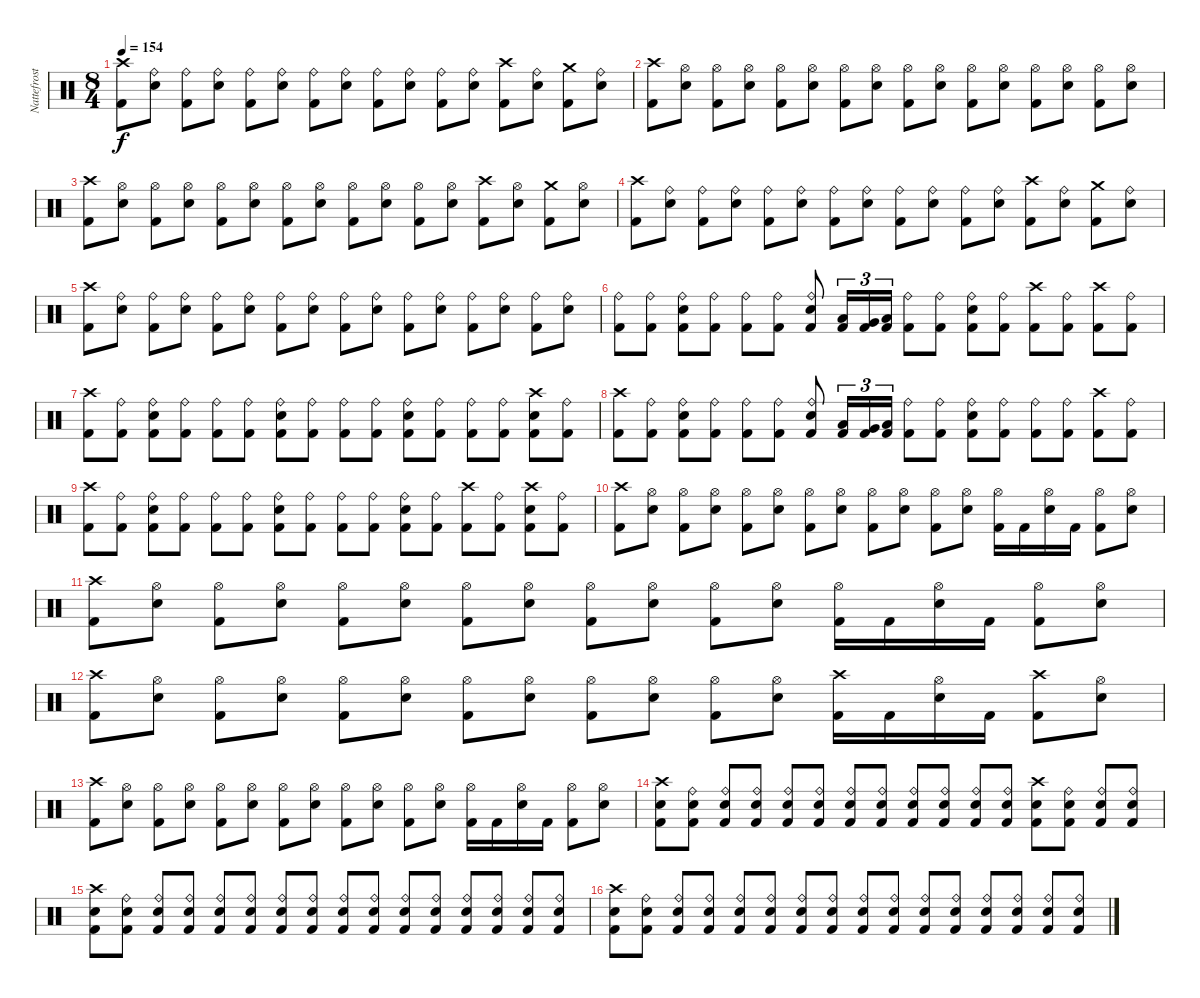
\track ("Nattefrost" "Nattefrost") {instrument percussion}
\staff {score}
\articulation defaults
\ts (8 4)
\tempo 154
\clef neutral
\ks c
("Crash high (hit)" "Kick (hit) 2").8{dy f} ("Ride (bell)" "Snare (hit) 2").8 ("Ride (bell)" "Kick (hit) 2").8 ("Ride (bell)" "Snare (hit) 2").8 ("Ride (bell)" "Kick (hit) 2").8 ("Ride (bell)" "Snare (hit) 2").8 ("Ride (bell)" "Kick (hit) 2").8 ("Ride (bell)" "Snare (hit) 2").8 ("Ride (bell)" "Kick (hit) 2").8 ("Ride (bell)" "Snare (hit) 2").8 ("Ride (bell)" "Kick (hit) 2").8 ("Ride (bell)" "Snare (hit) 2").8 ("Crash high (hit)" "Kick (hit) 2").8 ("Ride (bell)" "Snare (hit) 2").8 ("Crash medium (hit)" "Kick (hit) 2").8 ("Ride (bell)" "Snare (hit) 2").8 |
("Crash high (hit)" "Kick (hit) 2").8 ("Hi-Hat (open)" "Snare (hit) 2").8 ("Hi-Hat (open)" "Kick (hit) 2").8 ("Hi-Hat (open)" "Snare (hit) 2").8 ("Hi-Hat (open)" "Kick (hit) 2").8 ("Hi-Hat (open)" "Snare (hit) 2").8 ("Hi-Hat (open)" "Kick (hit) 2").8 ("Hi-Hat (open)" "Snare (hit) 2").8 ("Hi-Hat (open)" "Kick (hit) 2").8 ("Hi-Hat (open)" "Snare (hit) 2").8 ("Hi-Hat (open)" "Kick (hit) 2").8 ("Hi-Hat (open)" "Snare (hit) 2").8 ("Hi-Hat (open)" "Kick (hit) 2").8 ("Hi-Hat (open)" "Snare (hit) 2").8 ("Hi-Hat (open)" "Kick (hit) 2").8 ("Hi-Hat (open)" "Snare (hit) 2").8 |
("Crash high (hit)" "Kick (hit) 2").8 ("Hi-Hat (open)" "Snare (hit) 2").8 ("Hi-Hat (open)" "Kick (hit) 2").8 ("Hi-Hat (open)" "Snare (hit) 2").8 ("Hi-Hat (open)" "Kick (hit) 2").8 ("Hi-Hat (open)" "Snare (hit) 2").8 ("Hi-Hat (open)" "Kick (hit) 2").8 ("Hi-Hat (open)" "Snare (hit) 2").8 ("Hi-Hat (open)" "Kick (hit) 2").8 ("Hi-Hat (open)" "Snare (hit) 2").8 ("Hi-Hat (open)" "Kick (hit) 2").8 ("Hi-Hat (open)" "Snare (hit) 2").8 ("Crash high (hit)" "Kick (hit) 2").8 ("Hi-Hat (open)" "Snare (hit) 2").8 ("Crash medium (hit)" "Kick (hit) 2").8 ("Hi-Hat (open)" "Snare (hit) 2").8 |
("Crash high (hit)" "Kick (hit) 2").8 ("Ride (bell)" "Snare (hit) 2").8 ("Ride (bell)" "Kick (hit) 2").8 ("Ride (bell)" "Snare (hit) 2").8 ("Ride (bell)" "Kick (hit) 2").8 ("Ride (bell)" "Snare (hit) 2").8 ("Ride (bell)" "Kick (hit) 2").8 ("Ride (bell)" "Snare (hit) 2").8 ("Ride (bell)" "Kick (hit) 2").8 ("Ride (bell)" "Snare (hit) 2").8 ("Ride (bell)" "Kick (hit) 2").8 ("Ride (bell)" "Snare (hit) 2").8 ("Crash high (hit)" "Kick (hit) 2").8 ("Ride (bell)" "Snare (hit) 2").8 ("Crash medium (hit)" "Kick (hit) 2").8 ("Ride (bell)" "Snare (hit) 2").8 |
("Crash high (hit)" "Kick (hit) 2").8 ("Ride (bell)" "Snare (hit) 2").8 ("Ride (bell)" "Kick (hit) 2").8 ("Ride (bell)" "Snare (hit) 2").8 ("Ride (bell)" "Kick (hit) 2").8 ("Ride (bell)" "Snare (hit) 2").8 ("Ride (bell)" "Kick (hit) 2").8 ("Ride (bell)" "Snare (hit) 2").8 ("Ride (bell)" "Kick (hit) 2").8 ("Ride (bell)" "Snare (hit) 2").8 ("Ride (bell)" "Kick (hit) 2").8 ("Ride (bell)" "Snare (hit) 2").8 ("Ride (bell)" "Kick (hit) 2").8 ("Ride (bell)" "Snare (hit) 2").8 ("Ride (bell)" "Kick (hit) 2").8 ("Ride (bell)" "Snare (hit) 2").8 |
("Ride (bell)" "Kick (hit) 2").8 ("Ride (bell)" "Kick (hit) 2").8 ("Ride (bell)" "Snare (hit) 2" "Kick (hit) 2").8 ("Ride (bell)" "Kick (hit) 2").8 ("Ride (bell)" "Kick (hit) 2").8 ("Ride (bell)" "Kick (hit) 2").8 ("Ride (bell)" "Snare (hit) 2" "Kick (hit) 2").8 ("Low Tom (hit)" "Kick (hit) 2").16{tu (3 2)} ("Very Low Tom (hit)" "Kick (hit) 2").16{tu (3 2)} ("Low Floor Tom (hit)" "Kick (hit) 2").16{tu (3 2)} ("Ride (bell)" "Kick (hit) 2").8 ("Ride (bell)" "Kick (hit) 2").8 ("Ride (bell)" "Snare (hit) 2" "Kick (hit) 2").8 ("Ride (bell)" "Kick (hit) 2").8 ("Crash high (hit)" "Kick (hit) 2").8 ("Ride (bell)" "Kick (hit) 2").8 ("Crash high (hit)" "Kick (hit) 2").8 ("Ride (bell)" "Kick (hit) 2").8 |
("Crash high (hit)" "Kick (hit) 2").8 ("Ride (bell)" "Kick (hit) 2").8 ("Ride (bell)" "Snare (hit) 2" "Kick (hit) 2").8 ("Ride (bell)" "Kick (hit) 2").8 ("Ride (bell)" "Kick (hit) 2").8 ("Ride (bell)" "Kick (hit) 2").8 ("Ride (bell)" "Snare (hit) 2" "Kick (hit) 2").8 ("Ride (bell)" "Kick (hit) 2").8 ("Ride (bell)" "Kick (hit) 2").8 ("Ride (bell)" "Kick (hit) 2").8 ("Ride (bell)" "Snare (hit) 2" "Kick (hit) 2").8 ("Ride (bell)" "Kick (hit) 2").8 ("Ride (bell)" "Kick (hit) 2").8 ("Ride (bell)" "Kick (hit) 2").8 ("Crash high (hit)" "Snare (hit) 2" "Kick (hit) 2").8 ("Ride (bell)" "Kick (hit) 2").8 |
("Crash high (hit)" "Kick (hit) 2").8 ("Ride (bell)" "Kick (hit) 2").8 ("Ride (bell)" "Snare (hit) 2" "Kick (hit) 2").8 ("Ride (bell)" "Kick (hit) 2").8 ("Ride (bell)" "Kick (hit) 2").8 ("Ride (bell)" "Kick (hit) 2").8 ("Ride (bell)" "Snare (hit) 2" "Kick (hit) 2").8 ("Low Tom (hit)" "Kick (hit) 2").16{tu (3 2)} ("Very Low Tom (hit)" "Kick (hit) 2").16{tu (3 2)} ("Low Floor Tom (hit)" "Kick (hit) 2").16{tu (3 2)} ("Ride (bell)" "Kick (hit) 2").8 ("Ride (bell)" "Kick (hit) 2").8 ("Ride (bell)" "Snare (hit) 2" "Kick (hit) 2").8 ("Ride (bell)" "Kick (hit) 2").8 ("Ride (bell)" "Kick (hit) 2").8 ("Ride (bell)" "Kick (hit) 2").8 ("Crash high (hit)" "Kick (hit) 2").8 ("Ride (bell)" "Kick (hit) 2").8 |
("Crash high (hit)" "Kick (hit) 2").8 ("Ride (bell)" "Kick (hit) 2").8 ("Ride (bell)" "Snare (hit) 2" "Kick (hit) 2").8 ("Ride (bell)" "Kick (hit) 2").8 ("Ride (bell)" "Kick (hit) 2").8 ("Ride (bell)" "Kick (hit) 2").8 ("Ride (bell)" "Snare (hit) 2" "Kick (hit) 2").8 ("Ride (bell)" "Kick (hit) 2").8 ("Ride (bell)" "Kick (hit) 2").8 ("Ride (bell)" "Kick (hit) 2").8 ("Ride (bell)" "Snare (hit) 2" "Kick (hit) 2").8 ("Ride (bell)" "Kick (hit) 2").8 ("Crash high (hit)" "Kick (hit) 2").8 ("Ride (bell)" "Kick (hit) 2").8 ("Crash high (hit)" "Snare (hit) 2" "Kick (hit) 2").8 ("Ride (bell)" "Kick (hit) 2").8 |
("Crash high (hit)" "Kick (hit) 2").8 ("Hi-Hat (open)" "Snare (hit) 2").8 ("Hi-Hat (open)" "Kick (hit) 2").8 ("Hi-Hat (open)" "Snare (hit) 2").8 ("Hi-Hat (open)" "Kick (hit) 2").8 ("Hi-Hat (open)" "Snare (hit) 2").8 ("Hi-Hat (open)" "Kick (hit) 2").8 ("Hi-Hat (open)" "Snare (hit) 2").8 ("Hi-Hat (open)" "Kick (hit) 2").8 ("Hi-Hat (open)" "Snare (hit) 2").8 ("Hi-Hat (open)" "Kick (hit) 2").8 ("Hi-Hat (open)" "Snare (hit) 2").8 ("Hi-Hat (open)" "Kick (hit) 2").16 "Kick (hit) 2".16 ("Hi-Hat (open)" "Snare (hit) 2").16 "Kick (hit) 2".16 ("Hi-Hat (open)" "Kick (hit) 2").8 ("Hi-Hat (open)" "Snare (hit) 2").8 |
("Crash high (hit)" "Kick (hit) 2").8 ("Hi-Hat (open)" "Snare (hit) 2").8 ("Hi-Hat (open)" "Kick (hit) 2").8 ("Hi-Hat (open)" "Snare (hit) 2").8 ("Hi-Hat (open)" "Kick (hit) 2").8 ("Hi-Hat (open)" "Snare (hit) 2").8 ("Hi-Hat (open)" "Kick (hit) 2").8 ("Hi-Hat (open)" "Snare (hit) 2").8 ("Hi-Hat (open)" "Kick (hit) 2").8 ("Hi-Hat (open)" "Snare (hit) 2").8 ("Hi-Hat (open)" "Kick (hit) 2").8 ("Hi-Hat (open)" "Snare (hit) 2").8 ("Hi-Hat (open)" "Kick (hit) 2").16 "Kick (hit) 2".16 ("Hi-Hat (open)" "Snare (hit) 2").16 "Kick (hit) 2".16 ("Hi-Hat (open)" "Kick (hit) 2").8 ("Hi-Hat (open)" "Snare (hit) 2").8 |
("Crash high (hit)" "Kick (hit) 2").8 ("Hi-Hat (open)" "Snare (hit) 2").8 ("Hi-Hat (open)" "Kick (hit) 2").8 ("Hi-Hat (open)" "Snare (hit) 2").8 ("Hi-Hat (open)" "Kick (hit) 2").8 ("Hi-Hat (open)" "Snare (hit) 2").8 ("Hi-Hat (open)" "Kick (hit) 2").8 ("Hi-Hat (open)" "Snare (hit) 2").8 ("Hi-Hat (open)" "Kick (hit) 2").8 ("Hi-Hat (open)" "Snare (hit) 2").8 ("Hi-Hat (open)" "Kick (hit) 2").8 ("Hi-Hat (open)" "Snare (hit) 2").8 ("Crash high (hit)" "Kick (hit) 2").16 "Kick (hit) 2".16 ("Hi-Hat (open)" "Snare (hit) 2").16 "Kick (hit) 2".16 ("Crash high (hit)" "Kick (hit) 2").8 ("Hi-Hat (open)" "Snare (hit) 2").8 |
("Crash high (hit)" "Kick (hit) 2").8 ("Hi-Hat (open)" "Snare (hit) 2").8 ("Hi-Hat (open)" "Kick (hit) 2").8 ("Hi-Hat (open)" "Snare (hit) 2").8 ("Hi-Hat (open)" "Kick (hit) 2").8 ("Hi-Hat (open)" "Snare (hit) 2").8 ("Hi-Hat (open)" "Kick (hit) 2").8 ("Hi-Hat (open)" "Snare (hit) 2").8 ("Hi-Hat (open)" "Kick (hit) 2").8 ("Hi-Hat (open)" "Snare (hit) 2").8 ("Hi-Hat (open)" "Kick (hit) 2").8 ("Hi-Hat (open)" "Snare (hit) 2").8 ("Hi-Hat (open)" "Kick (hit) 2").16 "Kick (hit) 2".16 ("Hi-Hat (open)" "Snare (hit) 2").16 "Kick (hit) 2".16 ("Hi-Hat (open)" "Kick (hit) 2").8 ("Hi-Hat (open)" "Snare (hit) 2").8 |
("Crash high (hit)" "Snare (hit) 2" "Kick (hit) 2").8 ("Ride (bell)" "Snare (hit) 2" "Kick (hit) 2").8 ("Ride (bell)" "Snare (hit) 2" "Kick (hit) 2").8 ("Ride (bell)" "Snare (hit) 2" "Kick (hit) 2").8 ("Ride (bell)" "Snare (hit) 2" "Kick (hit) 2").8 ("Ride (bell)" "Snare (hit) 2" "Kick (hit) 2").8 ("Ride (bell)" "Snare (hit) 2" "Kick (hit) 2").8 ("Ride (bell)" "Snare (hit) 2" "Kick (hit) 2").8 ("Ride (bell)" "Snare (hit) 2" "Kick (hit) 2").8 ("Ride (bell)" "Snare (hit) 2" "Kick (hit) 2").8 ("Ride (bell)" "Snare (hit) 2" "Kick (hit) 2").8 ("Ride (bell)" "Snare (hit) 2" "Kick (hit) 2").8 ("Crash high (hit)" "Snare (hit) 2" "Kick (hit) 2").8 ("Ride (bell)" "Snare (hit) 2" "Kick (hit) 2").8 ("Ride (bell)" "Snare (hit) 2" "Kick (hit) 2").8 ("Ride (bell)" "Snare (hit) 2" "Kick (hit) 2").8 |
("Crash high (hit)" "Snare (hit) 2" "Kick (hit) 2").8 ("Ride (bell)" "Snare (hit) 2" "Kick (hit) 2").8 ("Ride (bell)" "Snare (hit) 2" "Kick (hit) 2").8 ("Ride (bell)" "Snare (hit) 2" "Kick (hit) 2").8 ("Ride (bell)" "Snare (hit) 2" "Kick (hit) 2").8 ("Ride (bell)" "Snare (hit) 2" "Kick (hit) 2").8 ("Ride (bell)" "Snare (hit) 2" "Kick (hit) 2").8 ("Ride (bell)" "Snare (hit) 2" "Kick (hit) 2").8 ("Ride (bell)" "Snare (hit) 2" "Kick (hit) 2").8 ("Ride (bell)" "Snare (hit) 2" "Kick (hit) 2").8 ("Ride (bell)" "Snare (hit) 2" "Kick (hit) 2").8 ("Ride (bell)" "Snare (hit) 2" "Kick (hit) 2").8 ("Ride (bell)" "Snare (hit) 2" "Kick (hit) 2").8 ("Ride (bell)" "Snare (hit) 2" "Kick (hit) 2").8 ("Ride (bell)" "Snare (hit) 2" "Kick (hit) 2").8 ("Ride (bell)" "Snare (hit) 2" "Kick (hit) 2").8 |
("Crash high (hit)" "Snare (hit) 2" "Kick (hit) 2").8 ("Ride (bell)" "Snare (hit) 2" "Kick (hit) 2").8 ("Ride (bell)" "Snare (hit) 2" "Kick (hit) 2").8 ("Ride (bell)" "Snare (hit) 2" "Kick (hit) 2").8 ("Ride (bell)" "Snare (hit) 2" "Kick (hit) 2").8 ("Ride (bell)" "Snare (hit) 2" "Kick (hit) 2").8 ("Ride (bell)" "Snare (hit) 2" "Kick (hit) 2").8 ("Ride (bell)" "Snare (hit) 2" "Kick (hit) 2").8 ("Ride (bell)" "Snare (hit) 2" "Kick (hit) 2").8 ("Ride (bell)" "Snare (hit) 2" "Kick (hit) 2").8 ("Ride (bell)" "Snare (hit) 2" "Kick (hit) 2").8 ("Ride (bell)" "Snare (hit) 2" "Kick (hit) 2").8 ("Ride (bell)" "Snare (hit) 2" "Kick (hit) 2").8 ("Ride (bell)" "Snare (hit) 2" "Kick (hit) 2").8 ("Ride (bell)" "Snare (hit) 2" "Kick (hit) 2").8 ("Ride (bell)" "Snare (hit) 2" "Kick (hit) 2").8
